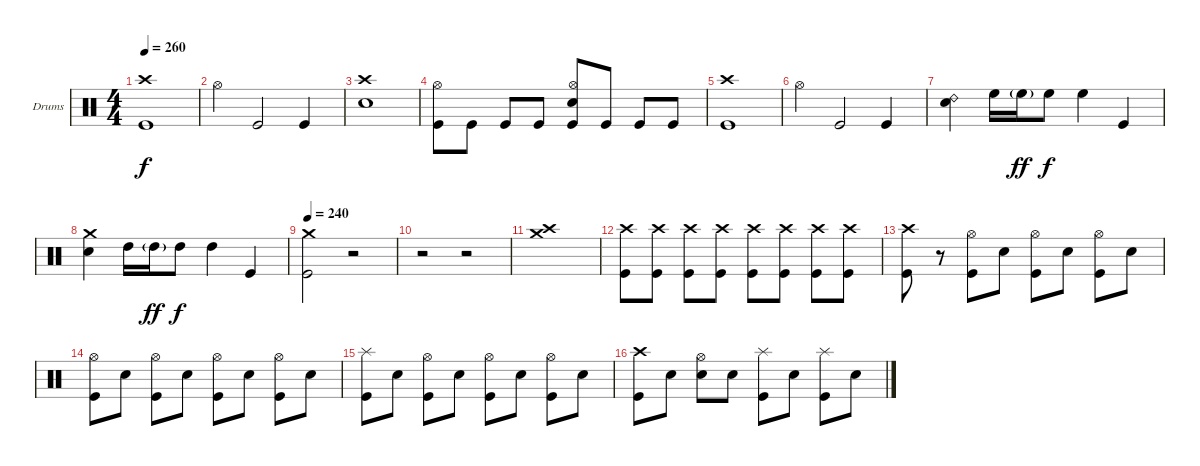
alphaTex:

\bracketExtendMode groupsimilarinstruments
\firstSystemTrackNameOrientation horizontal
\otherSystemsTrackNameOrientation horizontal
\track ("Drumkit" "Drums") {instrument percussion}
\staff {score}
\articulation defaults
\ts (4 4)
\tempo 260
\clef neutral
\ks c
("Crash high (hit)" "Kick (hit)").1{dy f} |
"Hi-Hat (open)".4 "Kick (hit)".2 "Kick (hit)".4 |
("Crash high (hit)" "Snare (hit) 2").1 |
("Hi-Hat (open)" "Kick (hit)").8 "Kick (hit)".8 "Kick (hit)".8 "Kick (hit)".8 ("Hi-Hat (open)" "Snare (hit) 2" "Kick (hit)").8 "Kick (hit)".8 "Kick (hit)".8 "Kick (hit)".8 |
("Crash high (hit)" "Kick (hit)").1 |
"Hi-Hat (open)".4 "Kick (hit)".2 "Kick (hit)".4 |
("Ride (bell) 2" "Snare (hit) 2").4 "High Floor Tom (hit)".16 "High Floor Tom (hit)"{g}.16{dy ff} "High Floor Tom (hit)".8{dy f} "High Floor Tom (hit)".4 "Kick (hit)".4 |
("Crash medium (hit)" "Snare (hit) 2").4 "High Tom (hit)".16 "High Tom (hit)"{g}.16{dy ff} "High Tom (hit)".8{dy f} "High Tom (hit)".4 "Kick (hit)".4 |
\tempo 240
("Crash medium (hit)" "Kick (hit)").2 r.2 |
r.2 r.2 |
("Crash high (hit)" "Crash medium (hit)").1 |
("Crash high (hit)" "Kick (hit)").8 ("Crash high (hit)" "Kick (hit)").8 ("Crash high (hit)" "Kick (hit)").8 ("Crash high (hit)" "Kick (hit)").8 ("Crash high (hit)" "Kick (hit)").8 ("Crash high (hit)" "Kick (hit)").8 ("Crash high (hit)" "Kick (hit)").8 ("Crash high (hit)" "Kick (hit)").8 |
("Crash high (hit)" "Kick (hit)").8 r.8 ("Hi-Hat (open)" "Kick (hit)").8 "Snare (hit) 2".8 ("Hi-Hat (open)" "Kick (hit)").8 "Snare (hit) 2".8 ("Hi-Hat (open)" "Kick (hit)").8 "Snare (hit) 2".8 |
("Hi-Hat (open)" "Kick (hit)").8 "Snare (hit) 2".8 ("Hi-Hat (open)" "Kick (hit)").8 "Snare (hit) 2".8 ("Hi-Hat (open)" "Kick (hit)").8 "Snare (hit) 2".8 ("Hi-Hat (open)" "Kick (hit)").8 "Snare (hit) 2".8 |
("Splash (hit)" "Kick (hit)").8 "Snare (hit) 2".8 ("Hi-Hat (open)" "Kick (hit)").8 "Snare (hit) 2".8 ("Hi-Hat (open)" "Kick (hit)").8 "Snare (hit) 2".8 ("Hi-Hat (open)" "Kick (hit)").8 "Snare (hit) 2".8 |
("Crash high (hit)" "Kick (hit)").8 "Snare (hit) 2".8 ("Hi-Hat (open)" "Snare (hit) 2").8 "Snare (hit) 2".8 ("Splash (hit)" "Kick (hit)").8 "Snare (hit) 2".8 ("Splash (hit)" "Kick (hit)").8 "Snare (hit) 2".8
